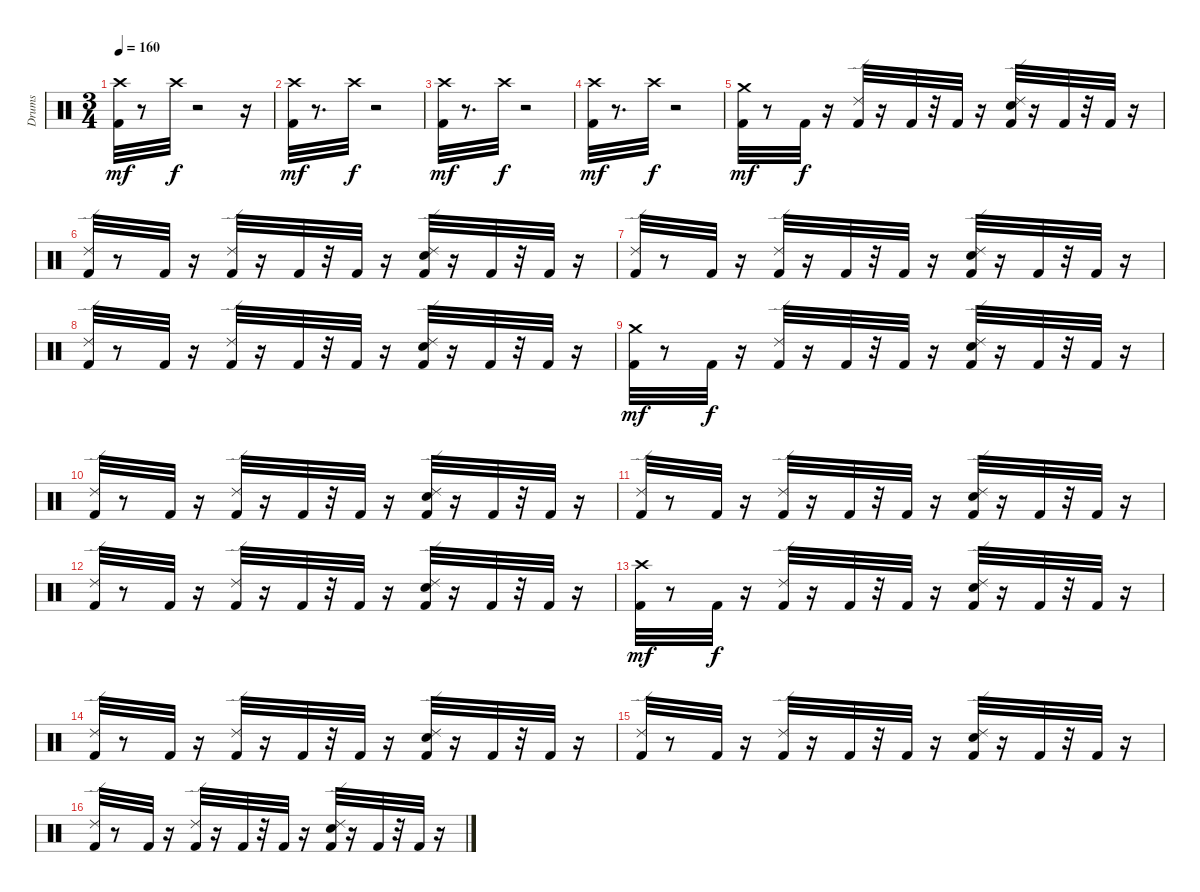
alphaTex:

\track ("Drums" "Drums") {instrument percussion}
\staff {score}
\articulation defaults
\ts (3 4)
\tempo 160
\clef neutral
\ks c
("Kick (hit) 2" "Crash high (hit)").32{dy mf} r.8 "Crash high (hit)".32{dy f} r.2 r.16 |
("Kick (hit) 2" "Crash high (hit)").32{dy mf} r.8{d} "Crash high (hit)".32{dy f} r.2 |
("Kick (hit) 2" "Crash high (hit)").32{dy mf} r.8{d} "Crash high (hit)".32{dy f} r.2 |
("Kick (hit) 2" "Crash high (hit)").32{dy mf} r.8{d} "Crash high (hit)".32{dy f} r.2 |
("Kick (hit) 2" "Crash medium (hit)").32{dy mf} r.8 "Kick (hit) 2".32{dy f} r.16 ("Kick (hit) 2" "Ride (edge) 2").32 r.16 "Kick (hit) 2".32 r.32 "Kick (hit) 2".32 r.16 ("Kick (hit) 2" "Snare (hit) 2" "Ride (edge) 2").32 r.16 "Kick (hit) 2".32 r.32 "Kick (hit) 2".32 r.16 |
("Kick (hit) 2" "Ride (edge) 2").32 r.8 "Kick (hit) 2".32 r.16 ("Kick (hit) 2" "Ride (edge) 2").32 r.16 "Kick (hit) 2".32 r.32 "Kick (hit) 2".32 r.16 ("Kick (hit) 2" "Snare (hit) 2" "Ride (edge) 2").32 r.16 "Kick (hit) 2".32 r.32 "Kick (hit) 2".32 r.16 |
("Kick (hit) 2" "Ride (edge) 2").32 r.8 "Kick (hit) 2".32 r.16 ("Kick (hit) 2" "Ride (edge) 2").32 r.16 "Kick (hit) 2".32 r.32 "Kick (hit) 2".32 r.16 ("Kick (hit) 2" "Snare (hit) 2" "Ride (edge) 2").32 r.16 "Kick (hit) 2".32 r.32 "Kick (hit) 2".32 r.16 |
("Kick (hit) 2" "Ride (edge) 2").32 r.8 "Kick (hit) 2".32 r.16 ("Kick (hit) 2" "Ride (edge) 2").32 r.16 "Kick (hit) 2".32 r.32 "Kick (hit) 2".32 r.16 ("Kick (hit) 2" "Snare (hit) 2" "Ride (edge) 2").32 r.16 "Kick (hit) 2".32 r.32 "Kick (hit) 2".32 r.16 |
("Kick (hit) 2" "Crash medium (hit)").32{dy mf} r.8 "Kick (hit) 2".32{dy f} r.16 ("Kick (hit) 2" "Ride (edge) 2").32 r.16 "Kick (hit) 2".32 r.32 "Kick (hit) 2".32 r.16 ("Kick (hit) 2" "Snare (hit) 2" "Ride (edge) 2").32 r.16 "Kick (hit) 2".32 r.32 "Kick (hit) 2".32 r.16 |
("Kick (hit) 2" "Ride (edge) 2").32 r.8 "Kick (hit) 2".32 r.16 ("Kick (hit) 2" "Ride (edge) 2").32 r.16 "Kick (hit) 2".32 r.32 "Kick (hit) 2".32 r.16 ("Kick (hit) 2" "Snare (hit) 2" "Ride (edge) 2").32 r.16 "Kick (hit) 2".32 r.32 "Kick (hit) 2".32 r.16 |
("Kick (hit) 2" "Ride (edge) 2").32 r.8 "Kick (hit) 2".32 r.16 ("Kick (hit) 2" "Ride (edge) 2").32 r.16 "Kick (hit) 2".32 r.32 "Kick (hit) 2".32 r.16 ("Kick (hit) 2" "Snare (hit) 2" "Ride (edge) 2").32 r.16 "Kick (hit) 2".32 r.32 "Kick (hit) 2".32 r.16 |
("Kick (hit) 2" "Ride (edge) 2").32 r.8 "Kick (hit) 2".32 r.16 ("Kick (hit) 2" "Ride (edge) 2").32 r.16 "Kick (hit) 2".32 r.32 "Kick (hit) 2".32 r.16 ("Kick (hit) 2" "Snare (hit) 2" "Ride (edge) 2").32 r.16 "Kick (hit) 2".32 r.32 "Kick (hit) 2".32 r.16 |
("Kick (hit) 2" "Crash high (hit)").32{dy mf} r.8 "Kick (hit) 2".32{dy f} r.16 ("Kick (hit) 2" "Ride (edge) 2").32 r.16 "Kick (hit) 2".32 r.32 "Kick (hit) 2".32 r.16 ("Kick (hit) 2" "Snare (hit) 2" "Ride (edge) 2").32 r.16 "Kick (hit) 2".32 r.32 "Kick (hit) 2".32 r.16 |
("Kick (hit) 2" "Ride (edge) 2").32 r.8 "Kick (hit) 2".32 r.16 ("Kick (hit) 2" "Ride (edge) 2").32 r.16 "Kick (hit) 2".32 r.32 "Kick (hit) 2".32 r.16 ("Kick (hit) 2" "Snare (hit) 2" "Ride (edge) 2").32 r.16 "Kick (hit) 2".32 r.32 "Kick (hit) 2".32 r.16 |
("Kick (hit) 2" "Ride (edge) 2").32 r.8 "Kick (hit) 2".32 r.16 ("Kick (hit) 2" "Ride (edge) 2").32 r.16 "Kick (hit) 2".32 r.32 "Kick (hit) 2".32 r.16 ("Kick (hit) 2" "Snare (hit) 2" "Ride (edge) 2").32 r.16 "Kick (hit) 2".32 r.32 "Kick (hit) 2".32 r.16 |
("Kick (hit) 2" "Ride (edge) 2").32 r.8 "Kick (hit) 2".32 r.16 ("Kick (hit) 2" "Ride (edge) 2").32 r.16 "Kick (hit) 2".32 r.32 "Kick (hit) 2".32 r.16 ("Kick (hit) 2" "Snare (hit) 2" "Ride (edge) 2").32 r.16 "Kick (hit) 2".32 r.32 "Kick (hit) 2".32 r.16
